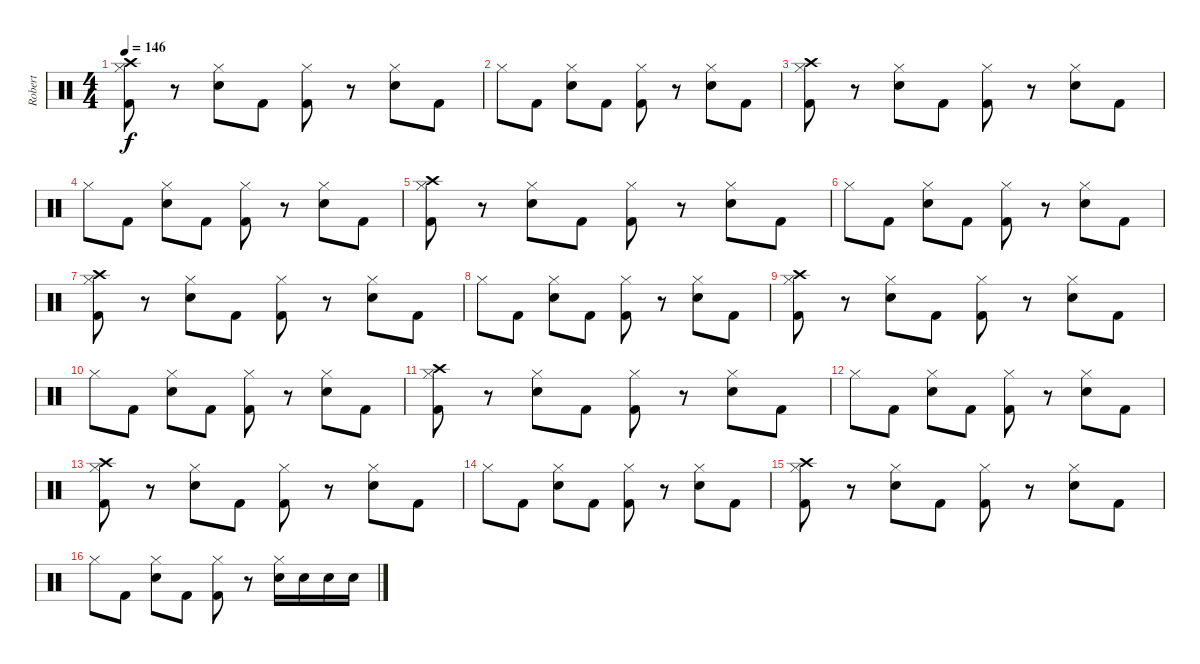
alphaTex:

\track ("Robert" "Robert") {instrument percussion}
\staff {score}
\articulation defaults
\ts (4 4)
\tempo 146
\clef neutral
\ks c
("Crash high (hit)" "Hi-Hat (closed)" "Kick (hit) 2").8{dy f} r.8 ("Hi-Hat (closed)" "Electric Snare (hit)").8 "Kick (hit) 2".8 ("Hi-Hat (closed)" "Kick (hit) 2").8 r.8 ("Hi-Hat (closed)" "Electric Snare (hit)").8 "Kick (hit) 2".8 |
"Hi-Hat (closed)".8 "Kick (hit) 2".8 ("Hi-Hat (closed)" "Electric Snare (hit)").8 "Kick (hit) 2".8 ("Hi-Hat (closed)" "Kick (hit) 2").8 r.8 ("Hi-Hat (closed)" "Electric Snare (hit)").8 "Kick (hit) 2".8 |
("Crash high (hit)" "Hi-Hat (closed)" "Kick (hit) 2").8 r.8 ("Hi-Hat (closed)" "Electric Snare (hit)").8 "Kick (hit) 2".8 ("Hi-Hat (closed)" "Kick (hit) 2").8 r.8 ("Hi-Hat (closed)" "Electric Snare (hit)").8 "Kick (hit) 2".8 |
"Hi-Hat (closed)".8 "Kick (hit) 2".8 ("Hi-Hat (closed)" "Electric Snare (hit)").8 "Kick (hit) 2".8 ("Hi-Hat (closed)" "Kick (hit) 2").8 r.8 ("Hi-Hat (closed)" "Electric Snare (hit)").8 "Kick (hit) 2".8 |
("Crash high (hit)" "Hi-Hat (closed)" "Kick (hit) 2").8 r.8 ("Hi-Hat (closed)" "Electric Snare (hit)").8 "Kick (hit) 2".8 ("Hi-Hat (closed)" "Kick (hit) 2").8 r.8 ("Hi-Hat (closed)" "Electric Snare (hit)").8 "Kick (hit) 2".8 |
"Hi-Hat (closed)".8 "Kick (hit) 2".8 ("Hi-Hat (closed)" "Electric Snare (hit)").8 "Kick (hit) 2".8 ("Hi-Hat (closed)" "Kick (hit) 2").8 r.8 ("Hi-Hat (closed)" "Electric Snare (hit)").8 "Kick (hit) 2".8 |
("Crash high (hit)" "Hi-Hat (closed)" "Kick (hit) 2").8 r.8 ("Hi-Hat (closed)" "Electric Snare (hit)").8 "Kick (hit) 2".8 ("Hi-Hat (closed)" "Kick (hit) 2").8 r.8 ("Hi-Hat (closed)" "Electric Snare (hit)").8 "Kick (hit) 2".8 |
"Hi-Hat (closed)".8 "Kick (hit) 2".8 ("Hi-Hat (closed)" "Electric Snare (hit)").8 "Kick (hit) 2".8 ("Hi-Hat (closed)" "Kick (hit) 2").8 r.8 ("Hi-Hat (closed)" "Electric Snare (hit)").8 "Kick (hit) 2".8 |
("Crash high (hit)" "Hi-Hat (closed)" "Kick (hit) 2").8 r.8 ("Hi-Hat (closed)" "Electric Snare (hit)").8 "Kick (hit) 2".8 ("Hi-Hat (closed)" "Kick (hit) 2").8 r.8 ("Hi-Hat (closed)" "Electric Snare (hit)").8 "Kick (hit) 2".8 |
"Hi-Hat (closed)".8 "Kick (hit) 2".8 ("Hi-Hat (closed)" "Electric Snare (hit)").8 "Kick (hit) 2".8 ("Hi-Hat (closed)" "Kick (hit) 2").8 r.8 ("Hi-Hat (closed)" "Electric Snare (hit)").8 "Kick (hit) 2".8 |
("Crash high (hit)" "Hi-Hat (closed)" "Kick (hit) 2").8 r.8 ("Hi-Hat (closed)" "Electric Snare (hit)").8 "Kick (hit) 2".8 ("Hi-Hat (closed)" "Kick (hit) 2").8 r.8 ("Hi-Hat (closed)" "Electric Snare (hit)").8 "Kick (hit) 2".8 |
"Hi-Hat (closed)".8 "Kick (hit) 2".8 ("Hi-Hat (closed)" "Electric Snare (hit)").8 "Kick (hit) 2".8 ("Hi-Hat (closed)" "Kick (hit) 2").8 r.8 ("Hi-Hat (closed)" "Electric Snare (hit)").8 "Kick (hit) 2".8 |
("Crash high (hit)" "Hi-Hat (closed)" "Kick (hit) 2").8 r.8 ("Hi-Hat (closed)" "Electric Snare (hit)").8 "Kick (hit) 2".8 ("Hi-Hat (closed)" "Kick (hit) 2").8 r.8 ("Hi-Hat (closed)" "Electric Snare (hit)").8 "Kick (hit) 2".8 |
"Hi-Hat (closed)".8 "Kick (hit) 2".8 ("Hi-Hat (closed)" "Electric Snare (hit)").8 "Kick (hit) 2".8 ("Hi-Hat (closed)" "Kick (hit) 2").8 r.8 ("Hi-Hat (closed)" "Electric Snare (hit)").8 "Kick (hit) 2".8 |
("Crash high (hit)" "Hi-Hat (closed)" "Kick (hit) 2").8 r.8 ("Hi-Hat (closed)" "Electric Snare (hit)").8 "Kick (hit) 2".8 ("Hi-Hat (closed)" "Kick (hit) 2").8 r.8 ("Hi-Hat (closed)" "Electric Snare (hit)").8 "Kick (hit) 2".8 |
"Hi-Hat (closed)".8 "Kick (hit) 2".8 ("Hi-Hat (closed)" "Electric Snare (hit)").8 "Kick (hit) 2".8 ("Hi-Hat (closed)" "Kick (hit) 2").8 r.8 ("Hi-Hat (closed)" "Electric Snare (hit)").16 "Electric Snare (hit)".16 "Electric Snare (hit)".16 "Electric Snare (hit)".16
